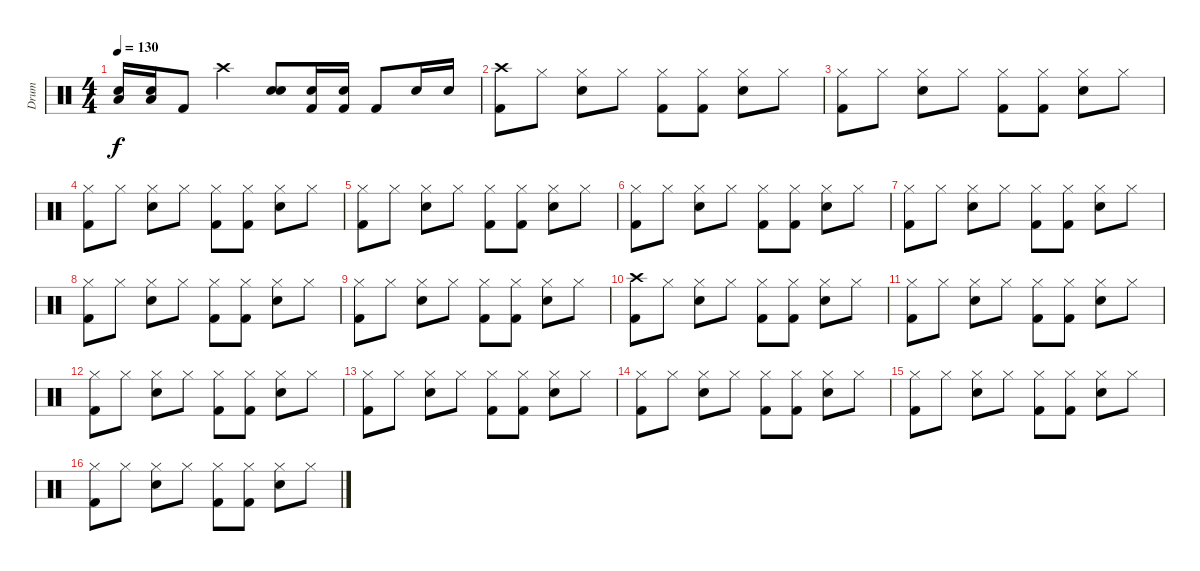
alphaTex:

\track ("Drum" "Drum") {instrument percussion}
\staff {score}
\articulation defaults
\ts (4 4)
\tempo 130
\clef neutral
\ks c
("Snare (hit) 2" "Low Floor Tom (hit)").16{dy f} ("Snare (hit) 2" "Low Floor Tom (hit)").16 "Kick (hit) 2".8 "Crash high (hit)".4 ("Electric Snare (hit)" "Snare (hit) 2").8{volume 16} ("Electric Snare (hit)" "Kick (hit) 2").16{volume 16} ("Electric Snare (hit)" "Kick (hit) 2").16{volume 16} "Kick (hit) 2".8{volume 14} "Snare (hit) 2".16 "Snare (hit) 2".16 |
("Crash high (hit)" "Kick (hit) 2").8 "Hi-Hat (closed)".8 ("Hi-Hat (closed)" "Snare (hit) 2").8 "Hi-Hat (closed)".8 ("Hi-Hat (closed)" "Kick (hit) 2").8 ("Hi-Hat (closed)" "Kick (hit) 2").8 ("Hi-Hat (closed)" "Snare (hit) 2").8 "Hi-Hat (closed)".8 |
("Hi-Hat (closed)" "Kick (hit) 2").8 "Hi-Hat (closed)".8 ("Hi-Hat (closed)" "Snare (hit) 2").8 "Hi-Hat (closed)".8 ("Hi-Hat (closed)" "Kick (hit) 2").8 ("Hi-Hat (closed)" "Kick (hit) 2").8 ("Hi-Hat (closed)" "Snare (hit) 2").8 "Hi-Hat (closed)".8 |
("Hi-Hat (closed)" "Kick (hit) 2").8 "Hi-Hat (closed)".8 ("Hi-Hat (closed)" "Snare (hit) 2").8 "Hi-Hat (closed)".8 ("Hi-Hat (closed)" "Kick (hit) 2").8 ("Hi-Hat (closed)" "Kick (hit) 2").8 ("Hi-Hat (closed)" "Snare (hit) 2").8 "Hi-Hat (closed)".8 |
("Hi-Hat (closed)" "Kick (hit) 2").8 "Hi-Hat (closed)".8 ("Hi-Hat (closed)" "Snare (hit) 2").8 "Hi-Hat (closed)".8 ("Hi-Hat (closed)" "Kick (hit) 2").8 ("Hi-Hat (closed)" "Kick (hit) 2").8 ("Hi-Hat (closed)" "Snare (hit) 2").8 "Hi-Hat (closed)".8 |
("Hi-Hat (closed)" "Kick (hit) 2").8 "Hi-Hat (closed)".8 ("Hi-Hat (closed)" "Snare (hit) 2").8 "Hi-Hat (closed)".8 ("Hi-Hat (closed)" "Kick (hit) 2").8 ("Hi-Hat (closed)" "Kick (hit) 2").8 ("Hi-Hat (closed)" "Snare (hit) 2").8 "Hi-Hat (closed)".8 |
("Hi-Hat (closed)" "Kick (hit) 2").8 "Hi-Hat (closed)".8 ("Hi-Hat (closed)" "Snare (hit) 2").8 "Hi-Hat (closed)".8 ("Hi-Hat (closed)" "Kick (hit) 2").8 ("Hi-Hat (closed)" "Kick (hit) 2").8 ("Hi-Hat (closed)" "Snare (hit) 2").8 "Hi-Hat (closed)".8 |
("Hi-Hat (closed)" "Kick (hit) 2").8 "Hi-Hat (closed)".8 ("Hi-Hat (closed)" "Snare (hit) 2").8 "Hi-Hat (closed)".8 ("Hi-Hat (closed)" "Kick (hit) 2").8 ("Hi-Hat (closed)" "Kick (hit) 2").8 ("Hi-Hat (closed)" "Snare (hit) 2").8 "Hi-Hat (closed)".8 |
("Hi-Hat (closed)" "Kick (hit) 2").8 "Hi-Hat (closed)".8 ("Hi-Hat (closed)" "Snare (hit) 2").8 "Hi-Hat (closed)".8 ("Hi-Hat (closed)" "Kick (hit) 2").8 ("Hi-Hat (closed)" "Kick (hit) 2").8 ("Hi-Hat (closed)" "Snare (hit) 2").8 "Hi-Hat (closed)".8 |
("Crash high (hit)" "Kick (hit) 2").8 "Hi-Hat (closed)".8 ("Hi-Hat (closed)" "Snare (hit) 2").8 "Hi-Hat (closed)".8 ("Hi-Hat (closed)" "Kick (hit) 2").8 ("Hi-Hat (closed)" "Kick (hit) 2").8 ("Hi-Hat (closed)" "Snare (hit) 2").8 "Hi-Hat (closed)".8 |
("Hi-Hat (closed)" "Kick (hit) 2").8 "Hi-Hat (closed)".8 ("Hi-Hat (closed)" "Snare (hit) 2").8 "Hi-Hat (closed)".8 ("Hi-Hat (closed)" "Kick (hit) 2").8 ("Hi-Hat (closed)" "Kick (hit) 2").8 ("Hi-Hat (closed)" "Snare (hit) 2").8 "Hi-Hat (closed)".8 |
("Hi-Hat (closed)" "Kick (hit) 2").8 "Hi-Hat (closed)".8 ("Hi-Hat (closed)" "Snare (hit) 2").8 "Hi-Hat (closed)".8 ("Hi-Hat (closed)" "Kick (hit) 2").8 ("Hi-Hat (closed)" "Kick (hit) 2").8 ("Hi-Hat (closed)" "Snare (hit) 2").8 "Hi-Hat (closed)".8 |
("Hi-Hat (closed)" "Kick (hit) 2").8 "Hi-Hat (closed)".8 ("Hi-Hat (closed)" "Snare (hit) 2").8 "Hi-Hat (closed)".8 ("Hi-Hat (closed)" "Kick (hit) 2").8 ("Hi-Hat (closed)" "Kick (hit) 2").8 ("Hi-Hat (closed)" "Snare (hit) 2").8 "Hi-Hat (closed)".8 |
("Hi-Hat (closed)" "Kick (hit) 2").8 "Hi-Hat (closed)".8 ("Hi-Hat (closed)" "Snare (hit) 2").8 "Hi-Hat (closed)".8 ("Hi-Hat (closed)" "Kick (hit) 2").8 ("Hi-Hat (closed)" "Kick (hit) 2").8 ("Hi-Hat (closed)" "Snare (hit) 2").8 "Hi-Hat (closed)".8 |
("Hi-Hat (closed)" "Kick (hit) 2").8 "Hi-Hat (closed)".8 ("Hi-Hat (closed)" "Snare (hit) 2").8 "Hi-Hat (closed)".8 ("Hi-Hat (closed)" "Kick (hit) 2").8 ("Hi-Hat (closed)" "Kick (hit) 2").8 ("Hi-Hat (closed)" "Snare (hit) 2").8 "Hi-Hat (closed)".8 |
("Hi-Hat (closed)" "Kick (hit) 2").8 "Hi-Hat (closed)".8 ("Hi-Hat (closed)" "Snare (hit) 2").8 "Hi-Hat (closed)".8 ("Hi-Hat (closed)" "Kick (hit) 2").8 ("Hi-Hat (closed)" "Kick (hit) 2").8 ("Hi-Hat (closed)" "Snare (hit) 2").8 "Hi-Hat (closed)".8
